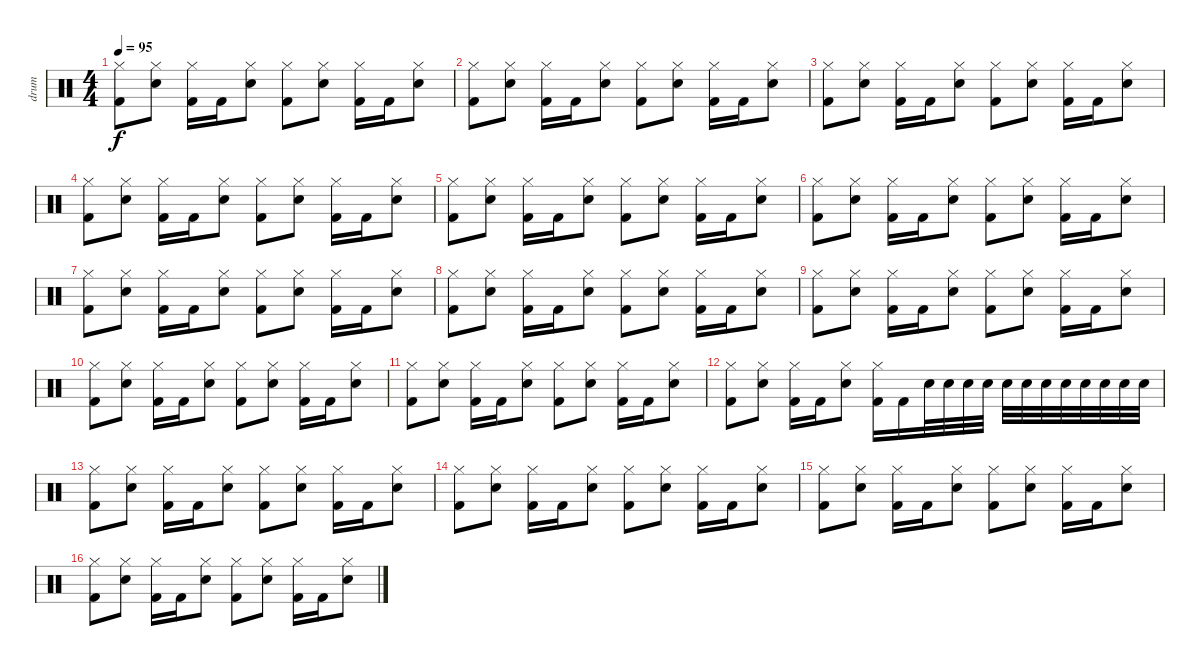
\track ("drum" "drum") {instrument percussion}
\staff {score}
\articulation defaults
\ts (4 4)
\tempo 95
\clef neutral
\ks c
("Hi-Hat (closed)" "Kick (hit) 2").8{dy f} ("Hi-Hat (closed)" "Snare (hit) 2").8 ("Hi-Hat (closed)" "Kick (hit) 2").16 "Kick (hit) 2".16 ("Hi-Hat (closed)" "Snare (hit) 2").8 ("Hi-Hat (closed)" "Kick (hit) 2").8 ("Hi-Hat (closed)" "Snare (hit) 2").8 ("Hi-Hat (closed)" "Kick (hit) 2").16 "Kick (hit) 2".16 ("Hi-Hat (closed)" "Snare (hit) 2").8 |
("Hi-Hat (closed)" "Kick (hit) 2").8 ("Hi-Hat (closed)" "Snare (hit) 2").8 ("Hi-Hat (closed)" "Kick (hit) 2").16 "Kick (hit) 2".16 ("Hi-Hat (closed)" "Snare (hit) 2").8 ("Hi-Hat (closed)" "Kick (hit) 2").8 ("Hi-Hat (closed)" "Snare (hit) 2").8 ("Hi-Hat (closed)" "Kick (hit) 2").16 "Kick (hit) 2".16 ("Hi-Hat (closed)" "Snare (hit) 2").8 |
("Hi-Hat (closed)" "Kick (hit) 2").8 ("Hi-Hat (closed)" "Snare (hit) 2").8 ("Hi-Hat (closed)" "Kick (hit) 2").16 "Kick (hit) 2".16 ("Hi-Hat (closed)" "Snare (hit) 2").8 ("Hi-Hat (closed)" "Kick (hit) 2").8 ("Hi-Hat (closed)" "Snare (hit) 2").8 ("Hi-Hat (closed)" "Kick (hit) 2").16 "Kick (hit) 2".16 ("Hi-Hat (closed)" "Snare (hit) 2").8 |
("Hi-Hat (closed)" "Kick (hit) 2").8 ("Hi-Hat (closed)" "Snare (hit) 2").8 ("Hi-Hat (closed)" "Kick (hit) 2").16 "Kick (hit) 2".16 ("Hi-Hat (closed)" "Snare (hit) 2").8 ("Hi-Hat (closed)" "Kick (hit) 2").8 ("Hi-Hat (closed)" "Snare (hit) 2").8 ("Hi-Hat (closed)" "Kick (hit) 2").16 "Kick (hit) 2".16 ("Hi-Hat (closed)" "Snare (hit) 2").8 |
("Hi-Hat (closed)" "Kick (hit) 2").8 ("Hi-Hat (closed)" "Snare (hit) 2").8 ("Hi-Hat (closed)" "Kick (hit) 2").16 "Kick (hit) 2".16 ("Hi-Hat (closed)" "Snare (hit) 2").8 ("Hi-Hat (closed)" "Kick (hit) 2").8 ("Hi-Hat (closed)" "Snare (hit) 2").8 ("Hi-Hat (closed)" "Kick (hit) 2").16 "Kick (hit) 2".16 ("Hi-Hat (closed)" "Snare (hit) 2").8 |
("Hi-Hat (closed)" "Kick (hit) 2").8 ("Hi-Hat (closed)" "Snare (hit) 2").8 ("Hi-Hat (closed)" "Kick (hit) 2").16 "Kick (hit) 2".16 ("Hi-Hat (closed)" "Snare (hit) 2").8 ("Hi-Hat (closed)" "Kick (hit) 2").8 ("Hi-Hat (closed)" "Snare (hit) 2").8 ("Hi-Hat (closed)" "Kick (hit) 2").16 "Kick (hit) 2".16 ("Hi-Hat (closed)" "Snare (hit) 2").8 |
("Hi-Hat (closed)" "Kick (hit) 2").8 ("Hi-Hat (closed)" "Snare (hit) 2").8 ("Hi-Hat (closed)" "Kick (hit) 2").16 "Kick (hit) 2".16 ("Hi-Hat (closed)" "Snare (hit) 2").8 ("Hi-Hat (closed)" "Kick (hit) 2").8 ("Hi-Hat (closed)" "Snare (hit) 2").8 ("Hi-Hat (closed)" "Kick (hit) 2").16 "Kick (hit) 2".16 ("Hi-Hat (closed)" "Snare (hit) 2").8 |
("Hi-Hat (closed)" "Kick (hit) 2").8 ("Hi-Hat (closed)" "Snare (hit) 2").8 ("Hi-Hat (closed)" "Kick (hit) 2").16 "Kick (hit) 2".16 ("Hi-Hat (closed)" "Snare (hit) 2").8 ("Hi-Hat (closed)" "Kick (hit) 2").8 ("Hi-Hat (closed)" "Snare (hit) 2").8 ("Hi-Hat (closed)" "Kick (hit) 2").16 "Kick (hit) 2".16 ("Hi-Hat (closed)" "Snare (hit) 2").8 |
("Hi-Hat (closed)" "Kick (hit) 2").8 ("Hi-Hat (closed)" "Snare (hit) 2").8 ("Hi-Hat (closed)" "Kick (hit) 2").16 "Kick (hit) 2".16 ("Hi-Hat (closed)" "Snare (hit) 2").8 ("Hi-Hat (closed)" "Kick (hit) 2").8 ("Hi-Hat (closed)" "Snare (hit) 2").8 ("Hi-Hat (closed)" "Kick (hit) 2").16 "Kick (hit) 2".16 ("Hi-Hat (closed)" "Snare (hit) 2").8 |
("Hi-Hat (closed)" "Kick (hit) 2").8 ("Hi-Hat (closed)" "Snare (hit) 2").8 ("Hi-Hat (closed)" "Kick (hit) 2").16 "Kick (hit) 2".16 ("Hi-Hat (closed)" "Snare (hit) 2").8 ("Hi-Hat (closed)" "Kick (hit) 2").8 ("Hi-Hat (closed)" "Snare (hit) 2").8 ("Hi-Hat (closed)" "Kick (hit) 2").16 "Kick (hit) 2".16 ("Hi-Hat (closed)" "Snare (hit) 2").8 |
("Hi-Hat (closed)" "Kick (hit) 2").8 ("Hi-Hat (closed)" "Snare (hit) 2").8 ("Hi-Hat (closed)" "Kick (hit) 2").16 "Kick (hit) 2".16 ("Hi-Hat (closed)" "Snare (hit) 2").8 ("Hi-Hat (closed)" "Kick (hit) 2").8 ("Hi-Hat (closed)" "Snare (hit) 2").8 ("Hi-Hat (closed)" "Kick (hit) 2").16 "Kick (hit) 2".16 ("Hi-Hat (closed)" "Snare (hit) 2").8 |
("Hi-Hat (closed)" "Kick (hit) 2").8 ("Hi-Hat (closed)" "Snare (hit) 2").8 ("Hi-Hat (closed)" "Kick (hit) 2").16 "Kick (hit) 2".16 ("Hi-Hat (closed)" "Snare (hit) 2").8 ("Hi-Hat (closed)" "Kick (hit) 2").16 "Kick (hit) 2".16 "Snare (hit) 2".32 "Snare (hit) 2".32 "Snare (hit) 2".32 "Snare (hit) 2".32 "Snare (hit) 2".32 "Snare (hit) 2".32 "Snare (hit) 2".32 "Snare (hit) 2".32 "Snare (hit) 2".32 "Snare (hit) 2".32 "Snare (hit) 2".32 "Snare (hit) 2".32 |
("Hi-Hat (closed)" "Kick (hit) 2").8 ("Hi-Hat (closed)" "Snare (hit) 2").8 ("Hi-Hat (closed)" "Kick (hit) 2").16 "Kick (hit) 2".16 ("Hi-Hat (closed)" "Snare (hit) 2").8 ("Hi-Hat (closed)" "Kick (hit) 2").8 ("Hi-Hat (closed)" "Snare (hit) 2").8 ("Hi-Hat (closed)" "Kick (hit) 2").16 "Kick (hit) 2".16 ("Hi-Hat (closed)" "Snare (hit) 2").8 |
("Hi-Hat (closed)" "Kick (hit) 2").8 ("Hi-Hat (closed)" "Snare (hit) 2").8 ("Hi-Hat (closed)" "Kick (hit) 2").16 "Kick (hit) 2".16 ("Hi-Hat (closed)" "Snare (hit) 2").8 ("Hi-Hat (closed)" "Kick (hit) 2").8 ("Hi-Hat (closed)" "Snare (hit) 2").8 ("Hi-Hat (closed)" "Kick (hit) 2").16 "Kick (hit) 2".16 ("Hi-Hat (closed)" "Snare (hit) 2").8 |
("Hi-Hat (closed)" "Kick (hit) 2").8 ("Hi-Hat (closed)" "Snare (hit) 2").8 ("Hi-Hat (closed)" "Kick (hit) 2").16 "Kick (hit) 2".16 ("Hi-Hat (closed)" "Snare (hit) 2").8 ("Hi-Hat (closed)" "Kick (hit) 2").8 ("Hi-Hat (closed)" "Snare (hit) 2").8 ("Hi-Hat (closed)" "Kick (hit) 2").16 "Kick (hit) 2".16 ("Hi-Hat (closed)" "Snare (hit) 2").8 |
("Hi-Hat (closed)" "Kick (hit) 2").8 ("Hi-Hat (closed)" "Snare (hit) 2").8 ("Hi-Hat (closed)" "Kick (hit) 2").16 "Kick (hit) 2".16 ("Hi-Hat (closed)" "Snare (hit) 2").8 ("Hi-Hat (closed)" "Kick (hit) 2").8 ("Hi-Hat (closed)" "Snare (hit) 2").8 ("Hi-Hat (closed)" "Kick (hit) 2").16 "Kick (hit) 2".16 ("Hi-Hat (closed)" "Snare (hit) 2").8
